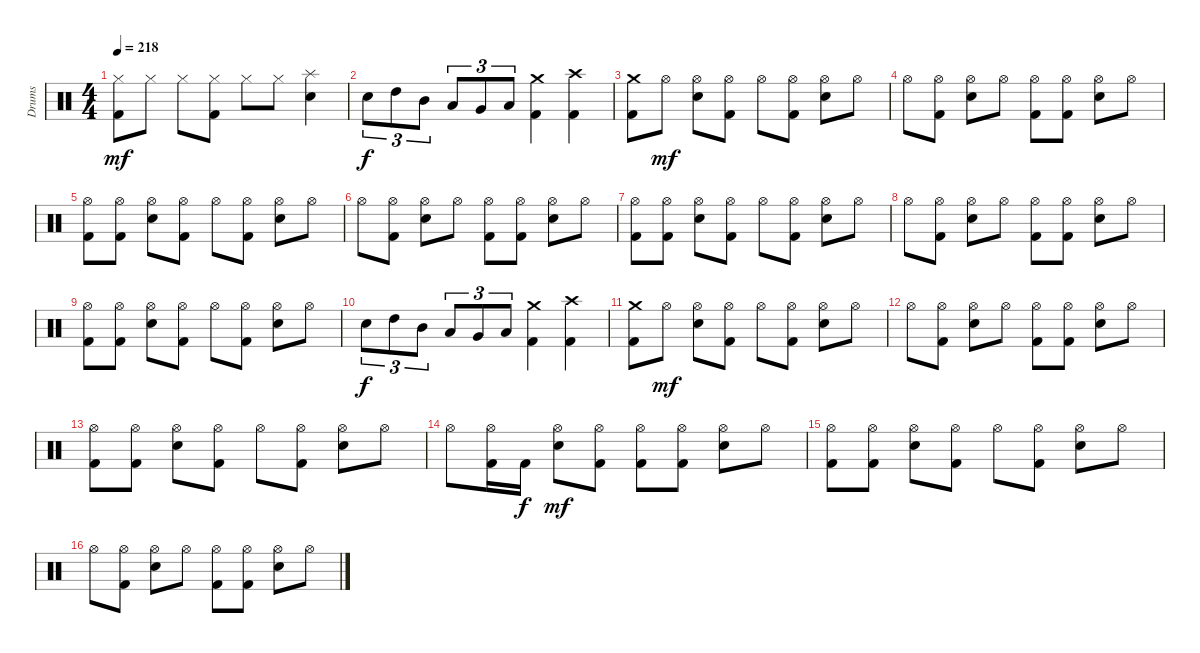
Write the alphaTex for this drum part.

\track ("Drums" "Drums") {instrument percussion}
\staff {score}
\articulation defaults
\ts (4 4)
\tempo 218
\clef neutral
\ks c
("Hi-Hat (closed)" "Kick (hit) 2").8{dy mf} "Hi-Hat (closed)".8 "Hi-Hat (closed)".8 ("Hi-Hat (closed)" "Kick (hit) 2").8 "Hi-Hat (closed)".8 "Hi-Hat (closed)".8 ("Splash (hit)" "Snare (hit) 2").4 |
"Snare (hit) 2".8{tu (3 2) dy f} "High Tom (hit)".8{tu (3 2)} "Mid Tom (hit)".8{tu (3 2)} "Low Tom (hit)".8{tu (3 2)} "Very Low Tom (hit)".8{tu (3 2)} "Low Floor Tom (hit)".8{tu (3 2)} ("Crash medium (hit)" "Kick (hit) 2").4 ("Crash high (hit)" "Kick (hit) 2").4 |
("Crash medium (hit)" "Kick (hit) 2").8 "Hi-Hat (open)".8{dy mf} ("Hi-Hat (open)" "Snare (hit) 2").8 ("Hi-Hat (open)" "Kick (hit) 2").8 "Hi-Hat (open)".8 ("Hi-Hat (open)" "Kick (hit) 2").8 ("Hi-Hat (open)" "Snare (hit) 2").8 "Hi-Hat (open)".8 |
"Hi-Hat (open)".8 ("Hi-Hat (open)" "Kick (hit) 2").8 ("Hi-Hat (open)" "Snare (hit) 2").8 "Hi-Hat (open)".8 ("Hi-Hat (open)" "Kick (hit) 2").8 ("Hi-Hat (open)" "Kick (hit) 2").8 ("Hi-Hat (open)" "Snare (hit) 2").8 "Hi-Hat (open)".8 |
("Hi-Hat (open)" "Kick (hit) 2").8 ("Hi-Hat (open)" "Kick (hit) 2").8 ("Hi-Hat (open)" "Snare (hit) 2").8 ("Hi-Hat (open)" "Kick (hit) 2").8 "Hi-Hat (open)".8 ("Hi-Hat (open)" "Kick (hit) 2").8 ("Hi-Hat (open)" "Snare (hit) 2").8 "Hi-Hat (open)".8 |
"Hi-Hat (open)".8 ("Hi-Hat (open)" "Kick (hit) 2").8 ("Hi-Hat (open)" "Snare (hit) 2").8 "Hi-Hat (open)".8 ("Hi-Hat (open)" "Kick (hit) 2").8 ("Hi-Hat (open)" "Kick (hit) 2").8 ("Hi-Hat (open)" "Snare (hit) 2").8 "Hi-Hat (open)".8 |
("Hi-Hat (open)" "Kick (hit) 2").8 ("Hi-Hat (open)" "Kick (hit) 2").8 ("Hi-Hat (open)" "Snare (hit) 2").8 ("Hi-Hat (open)" "Kick (hit) 2").8 "Hi-Hat (open)".8 ("Hi-Hat (open)" "Kick (hit) 2").8 ("Hi-Hat (open)" "Snare (hit) 2").8 "Hi-Hat (open)".8 |
"Hi-Hat (open)".8 ("Hi-Hat (open)" "Kick (hit) 2").8 ("Hi-Hat (open)" "Snare (hit) 2").8 "Hi-Hat (open)".8 ("Hi-Hat (open)" "Kick (hit) 2").8 ("Hi-Hat (open)" "Kick (hit) 2").8 ("Hi-Hat (open)" "Snare (hit) 2").8 "Hi-Hat (open)".8 |
("Hi-Hat (open)" "Kick (hit) 2").8 ("Hi-Hat (open)" "Kick (hit) 2").8 ("Hi-Hat (open)" "Snare (hit) 2").8 ("Hi-Hat (open)" "Kick (hit) 2").8 "Hi-Hat (open)".8 ("Hi-Hat (open)" "Kick (hit) 2").8 ("Hi-Hat (open)" "Snare (hit) 2").8 "Hi-Hat (open)".8 |
"Snare (hit) 2".8{tu (3 2) dy f} "High Tom (hit)".8{tu (3 2)} "Mid Tom (hit)".8{tu (3 2)} "Low Tom (hit)".8{tu (3 2)} "Very Low Tom (hit)".8{tu (3 2)} "Low Floor Tom (hit)".8{tu (3 2)} ("Crash medium (hit)" "Kick (hit) 2").4 ("Crash high (hit)" "Kick (hit) 2").4 |
("Crash medium (hit)" "Kick (hit) 2").8 "Hi-Hat (open)".8{dy mf} ("Hi-Hat (open)" "Snare (hit) 2").8 ("Hi-Hat (open)" "Kick (hit) 2").8 "Hi-Hat (open)".8 ("Hi-Hat (open)" "Kick (hit) 2").8 ("Hi-Hat (open)" "Snare (hit) 2").8 "Hi-Hat (open)".8 |
"Hi-Hat (open)".8 ("Hi-Hat (open)" "Kick (hit) 2").8 ("Hi-Hat (open)" "Snare (hit) 2").8 "Hi-Hat (open)".8 ("Hi-Hat (open)" "Kick (hit) 2").8 ("Hi-Hat (open)" "Kick (hit) 2").8 ("Hi-Hat (open)" "Snare (hit) 2").8 "Hi-Hat (open)".8 |
("Hi-Hat (open)" "Kick (hit) 2").8 ("Hi-Hat (open)" "Kick (hit) 2").8 ("Hi-Hat (open)" "Snare (hit) 2").8 ("Hi-Hat (open)" "Kick (hit) 2").8 "Hi-Hat (open)".8 ("Hi-Hat (open)" "Kick (hit) 2").8 ("Hi-Hat (open)" "Snare (hit) 2").8 "Hi-Hat (open)".8 |
"Hi-Hat (open)".8 ("Hi-Hat (open)" "Kick (hit) 2").16 "Kick (hit) 2".16{dy f} ("Hi-Hat (open)" "Snare (hit) 2").8{dy mf} ("Hi-Hat (open)" "Kick (hit) 2").8 ("Hi-Hat (open)" "Kick (hit) 2").8 ("Hi-Hat (open)" "Kick (hit) 2").8 ("Hi-Hat (open)" "Snare (hit) 2").8 "Hi-Hat (open)".8 |
("Hi-Hat (open)" "Kick (hit) 2").8 ("Hi-Hat (open)" "Kick (hit) 2").8 ("Hi-Hat (open)" "Snare (hit) 2").8 ("Hi-Hat (open)" "Kick (hit) 2").8 "Hi-Hat (open)".8 ("Hi-Hat (open)" "Kick (hit) 2").8 ("Hi-Hat (open)" "Snare (hit) 2").8 "Hi-Hat (open)".8 |
"Hi-Hat (open)".8 ("Hi-Hat (open)" "Kick (hit) 2").8 ("Hi-Hat (open)" "Snare (hit) 2").8 "Hi-Hat (open)".8 ("Hi-Hat (open)" "Kick (hit) 2").8 ("Hi-Hat (open)" "Kick (hit) 2").8 ("Hi-Hat (open)" "Snare (hit) 2").8 "Hi-Hat (open)".8
